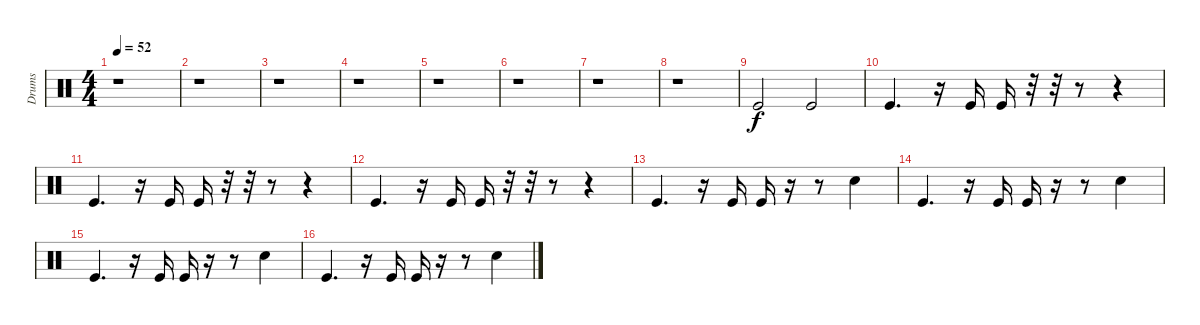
\track ("Drums" "Drums") {instrument percussion}
\staff {score}
\articulation defaults
\ts (4 4)
\tempo 52
\clef neutral
\ks c
r.1{dy f} |
r.1 |
r.1 |
r.1 |
r.1 |
r.1 |
r.1 |
r.1 |
"Kick (hit)".2 "Kick (hit)".2 |
"Kick (hit)".4{d} r.16 "Kick (hit)".16 "Kick (hit)".16 r.32 r.32 r.8 r.4 |
"Kick (hit)".4{d} r.16 "Kick (hit)".16 "Kick (hit)".16 r.32 r.32 r.8 r.4 |
"Kick (hit)".4{d} r.16 "Kick (hit)".16 "Kick (hit)".16 r.32 r.32 r.8 r.4 |
"Kick (hit)".4{d} r.16 "Kick (hit)".16 "Kick (hit)".16 r.16 r.8 "Snare (hit) 2".4 |
"Kick (hit)".4{d} r.16 "Kick (hit)".16 "Kick (hit)".16 r.16 r.8 "Snare (hit) 2".4 |
"Kick (hit)".4{d} r.16 "Kick (hit)".16 "Kick (hit)".16 r.16 r.8 "Snare (hit) 2".4 |
"Kick (hit)".4{d} r.16 "Kick (hit)".16 "Kick (hit)".16 r.16 r.8 "Snare (hit) 2".4
